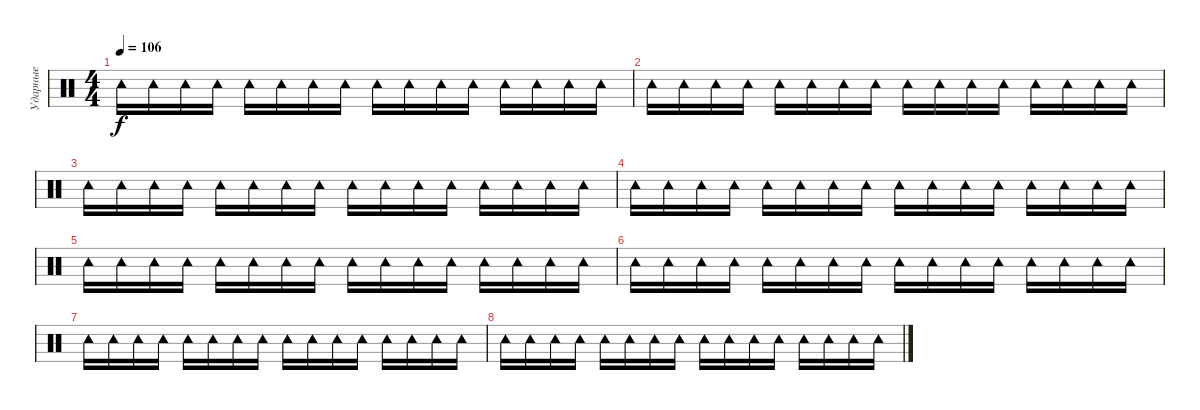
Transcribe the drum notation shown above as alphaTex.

\track ("Ударные" "Ударные") {instrument percussion}
\staff {score}
\articulation defaults
\ts (4 4)
\tempo 106
\clef neutral
\ks c "Tambourine (hit)".16{dy f} "Tambourine (hit)".16 "Tambourine (hit)".16 "Tambourine (hit)".16 "Tambourine (hit)".16 "Tambourine (hit)".16 "Tambourine (hit)".16 "Tambourine (hit)".16 "Tambourine (hit)".16 "Tambourine (hit)".16 "Tambourine (hit)".16 "Tambourine (hit)".16 "Tambourine (hit)".16 "Tambourine (hit)".16 "Tambourine (hit)".16 "Tambourine (hit)".16
|
"Tambourine (hit)".16 "Tambourine (hit)".16 "Tambourine (hit)".16 "Tambourine (hit)".16 "Tambourine (hit)".16 "Tambourine (hit)".16 "Tambourine (hit)".16 "Tambourine (hit)".16 "Tambourine (hit)".16 "Tambourine (hit)".16 "Tambourine (hit)".16 "Tambourine (hit)".16 "Tambourine (hit)".16 "Tambourine (hit)".16 "Tambourine (hit)".16 "Tambourine (hit)".16 |
"Tambourine (hit)".16 "Tambourine (hit)".16 "Tambourine (hit)".16 "Tambourine (hit)".16 "Tambourine (hit)".16 "Tambourine (hit)".16 "Tambourine (hit)".16 "Tambourine (hit)".16 "Tambourine (hit)".16 "Tambourine (hit)".16 "Tambourine (hit)".16 "Tambourine (hit)".16 "Tambourine (hit)".16 "Tambourine (hit)".16 "Tambourine (hit)".16 "Tambourine (hit)".16 |
"Tambourine (hit)".16 "Tambourine (hit)".16 "Tambourine (hit)".16 "Tambourine (hit)".16 "Tambourine (hit)".16 "Tambourine (hit)".16 "Tambourine (hit)".16 "Tambourine (hit)".16 "Tambourine (hit)".16 "Tambourine (hit)".16 "Tambourine (hit)".16 "Tambourine (hit)".16 "Tambourine (hit)".16 "Tambourine (hit)".16 "Tambourine (hit)".16 "Tambourine (hit)".16 |
"Tambourine (hit)".16 "Tambourine (hit)".16 "Tambourine (hit)".16 "Tambourine (hit)".16 "Tambourine (hit)".16 "Tambourine (hit)".16 "Tambourine (hit)".16 "Tambourine (hit)".16 "Tambourine (hit)".16 "Tambourine (hit)".16 "Tambourine (hit)".16 "Tambourine (hit)".16 "Tambourine (hit)".16 "Tambourine (hit)".16 "Tambourine (hit)".16 "Tambourine (hit)".16 |
"Tambourine (hit)".16 "Tambourine (hit)".16 "Tambourine (hit)".16 "Tambourine (hit)".16 "Tambourine (hit)".16 "Tambourine (hit)".16 "Tambourine (hit)".16 "Tambourine (hit)".16 "Tambourine (hit)".16 "Tambourine (hit)".16 "Tambourine (hit)".16 "Tambourine (hit)".16 "Tambourine (hit)".16 "Tambourine (hit)".16 "Tambourine (hit)".16 "Tambourine (hit)".16 |
"Tambourine (hit)".16 "Tambourine (hit)".16 "Tambourine (hit)".16 "Tambourine (hit)".16 "Tambourine (hit)".16 "Tambourine (hit)".16 "Tambourine (hit)".16 "Tambourine (hit)".16 "Tambourine (hit)".16 "Tambourine (hit)".16 "Tambourine (hit)".16 "Tambourine (hit)".16 "Tambourine (hit)".16 "Tambourine (hit)".16 "Tambourine (hit)".16 "Tambourine (hit)".16 |
"Tambourine (hit)".16 "Tambourine (hit)".16 "Tambourine (hit)".16 "Tambourine (hit)".16 "Tambourine (hit)".16 "Tambourine (hit)".16 "Tambourine (hit)".16 "Tambourine (hit)".16 "Tambourine (hit)".16 "Tambourine (hit)".16 "Tambourine (hit)".16 "Tambourine (hit)".16 "Tambourine (hit)".16 "Tambourine (hit)".16 "Tambourine (hit)".16 "Tambourine (hit)".16
